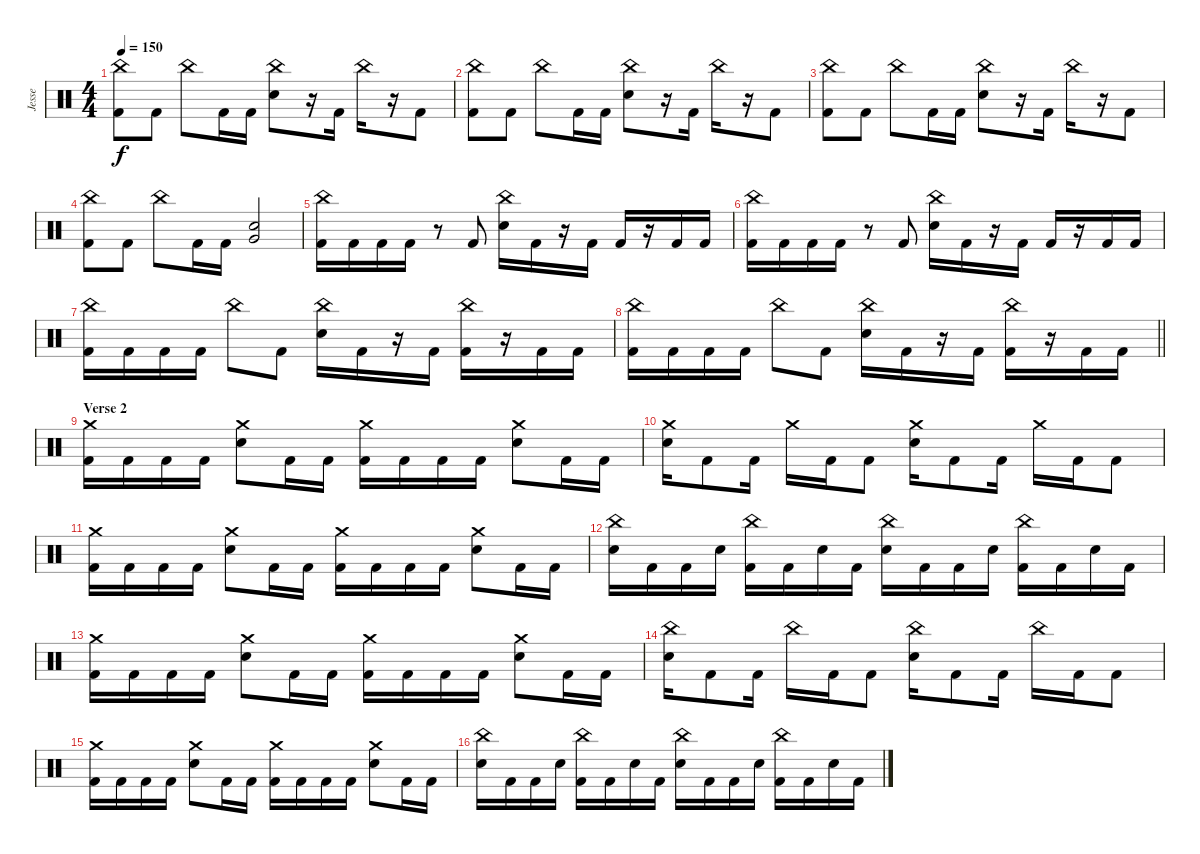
\track ("Jesse" "Jesse") {instrument percussion}
\staff {score}
\articulation defaults
\ts (4 4)
\tempo 150
\clef neutral
\ks c
("China (hit)" "Kick (hit) 2").8{dy f} "Kick (hit) 2".8 "China (hit)".8 "Kick (hit) 2".16 "Kick (hit) 2".16 ("China (hit)" "Electric Snare (hit)").8 r.16 "Kick (hit) 2".16 "China (hit)".16 r.16 "Kick (hit) 2".8 |
("China (hit)" "Kick (hit) 2").8 "Kick (hit) 2".8 "China (hit)".8 "Kick (hit) 2".16 "Kick (hit) 2".16 ("China (hit)" "Electric Snare (hit)").8 r.16 "Kick (hit) 2".16 "China (hit)".16 r.16 "Kick (hit) 2".8 |
("China (hit)" "Kick (hit) 2").8 "Kick (hit) 2".8 "China (hit)".8 "Kick (hit) 2".16 "Kick (hit) 2".16 ("China (hit)" "Electric Snare (hit)").8 r.16 "Kick (hit) 2".16 "China (hit)".16 r.16 "Kick (hit) 2".8 |
("China (hit)" "Kick (hit) 2").8 "Kick (hit) 2".8 "China (hit)".8 "Kick (hit) 2".16 "Kick (hit) 2".16 ("Electric Snare (hit)" "Very Low Tom (hit)").2 |
("China (hit)" "Kick (hit) 2").16 "Kick (hit) 2".16 "Kick (hit) 2".16 "Kick (hit) 2".16 r.8 "Kick (hit) 2".8 ("China (hit)" "Electric Snare (hit)").16 "Kick (hit) 2".16 r.16 "Kick (hit) 2".16 "Kick (hit) 2".16 r.16 "Kick (hit) 2".16 "Kick (hit) 2".16 |
("China (hit)" "Kick (hit) 2").16 "Kick (hit) 2".16 "Kick (hit) 2".16 "Kick (hit) 2".16 r.8 "Kick (hit) 2".8 ("China (hit)" "Electric Snare (hit)").16 "Kick (hit) 2".16 r.16 "Kick (hit) 2".16 "Kick (hit) 2".16 r.16 "Kick (hit) 2".16 "Kick (hit) 2".16 |
("China (hit)" "Kick (hit) 2").16 "Kick (hit) 2".16 "Kick (hit) 2".16 "Kick (hit) 2".16 "China (hit)".8 "Kick (hit) 2".8 ("China (hit)" "Electric Snare (hit)").16 "Kick (hit) 2".16 r.16 "Kick (hit) 2".16 ("China (hit)" "Kick (hit) 2").16 r.16 "Kick (hit) 2".16 "Kick (hit) 2".16 |
\barLineRight lightlight
("China (hit)" "Kick (hit) 2").16 "Kick (hit) 2".16 "Kick (hit) 2".16 "Kick (hit) 2".16 "China (hit)".8 "Kick (hit) 2".8 ("China (hit)" "Electric Snare (hit)").16 "Kick (hit) 2".16 r.16 "Kick (hit) 2".16 ("China (hit)" "Kick (hit) 2").16 r.16 "Kick (hit) 2".16 "Kick (hit) 2".16 |
\section ("" "Verse 2")
("Crash medium (hit)" "Kick (hit) 2").16 "Kick (hit) 2".16 "Kick (hit) 2".16 "Kick (hit) 2".16 ("Crash medium (hit)" "Electric Snare (hit)").8 "Kick (hit) 2".16 "Kick (hit) 2".16 ("Crash medium (hit)" "Kick (hit) 2").16 "Kick (hit) 2".16 "Kick (hit) 2".16 "Kick (hit) 2".16 ("Crash medium (hit)" "Electric Snare (hit)").8 "Kick (hit) 2".16 "Kick (hit) 2".16 |
("Crash medium (hit)" "Electric Snare (hit)").16 "Kick (hit) 2".8 "Kick (hit) 2".16 "Crash medium (hit)".16 "Kick (hit) 2".16 "Kick (hit) 2".8 ("Crash medium (hit)" "Electric Snare (hit)").16 "Kick (hit) 2".8 "Kick (hit) 2".16 "Crash medium (hit)".16 "Kick (hit) 2".16 "Kick (hit) 2".8 |
("Crash medium (hit)" "Kick (hit) 2").16 "Kick (hit) 2".16 "Kick (hit) 2".16 "Kick (hit) 2".16 ("Crash medium (hit)" "Electric Snare (hit)").8 "Kick (hit) 2".16 "Kick (hit) 2".16 ("Crash medium (hit)" "Kick (hit) 2").16 "Kick (hit) 2".16 "Kick (hit) 2".16 "Kick (hit) 2".16 ("Crash medium (hit)" "Electric Snare (hit)").8 "Kick (hit) 2".16 "Kick (hit) 2".16 |
("China (hit)" "Electric Snare (hit)").16 "Kick (hit) 2".16 "Kick (hit) 2".16 "Electric Snare (hit)".16 ("China (hit)" "Kick (hit) 2").16 "Kick (hit) 2".16 "Electric Snare (hit)".16 "Kick (hit) 2".16 ("China (hit)" "Electric Snare (hit)").16 "Kick (hit) 2".16 "Kick (hit) 2".16 "Electric Snare (hit)".16 ("China (hit)" "Kick (hit) 2").16 "Kick (hit) 2".16 "Electric Snare (hit)".16 "Kick (hit) 2".16 |
("Crash medium (hit)" "Kick (hit) 2").16 "Kick (hit) 2".16 "Kick (hit) 2".16 "Kick (hit) 2".16 ("Crash medium (hit)" "Electric Snare (hit)").8 "Kick (hit) 2".16 "Kick (hit) 2".16 ("Crash medium (hit)" "Kick (hit) 2").16 "Kick (hit) 2".16 "Kick (hit) 2".16 "Kick (hit) 2".16 ("Crash medium (hit)" "Electric Snare (hit)").8 "Kick (hit) 2".16 "Kick (hit) 2".16 |
("China (hit)" "Electric Snare (hit)").16 "Kick (hit) 2".8 "Kick (hit) 2".16 "China (hit)".16 "Kick (hit) 2".16 "Kick (hit) 2".8 ("China (hit)" "Electric Snare (hit)").16 "Kick (hit) 2".8 "Kick (hit) 2".16 "China (hit)".16 "Kick (hit) 2".16 "Kick (hit) 2".8 |
("Crash medium (hit)" "Kick (hit) 2").16 "Kick (hit) 2".16 "Kick (hit) 2".16 "Kick (hit) 2".16 ("Crash medium (hit)" "Electric Snare (hit)").8 "Kick (hit) 2".16 "Kick (hit) 2".16 ("Crash medium (hit)" "Kick (hit) 2").16 "Kick (hit) 2".16 "Kick (hit) 2".16 "Kick (hit) 2".16 ("Crash medium (hit)" "Electric Snare (hit)").8 "Kick (hit) 2".16 "Kick (hit) 2".16 |
("China (hit)" "Electric Snare (hit)").16 "Kick (hit) 2".16 "Kick (hit) 2".16 "Electric Snare (hit)".16 ("China (hit)" "Kick (hit) 2").16 "Kick (hit) 2".16 "Electric Snare (hit)".16 "Kick (hit) 2".16 ("China (hit)" "Electric Snare (hit)").16 "Kick (hit) 2".16 "Kick (hit) 2".16 "Electric Snare (hit)".16 ("China (hit)" "Kick (hit) 2").16 "Kick (hit) 2".16 "Electric Snare (hit)".16 "Kick (hit) 2".16
